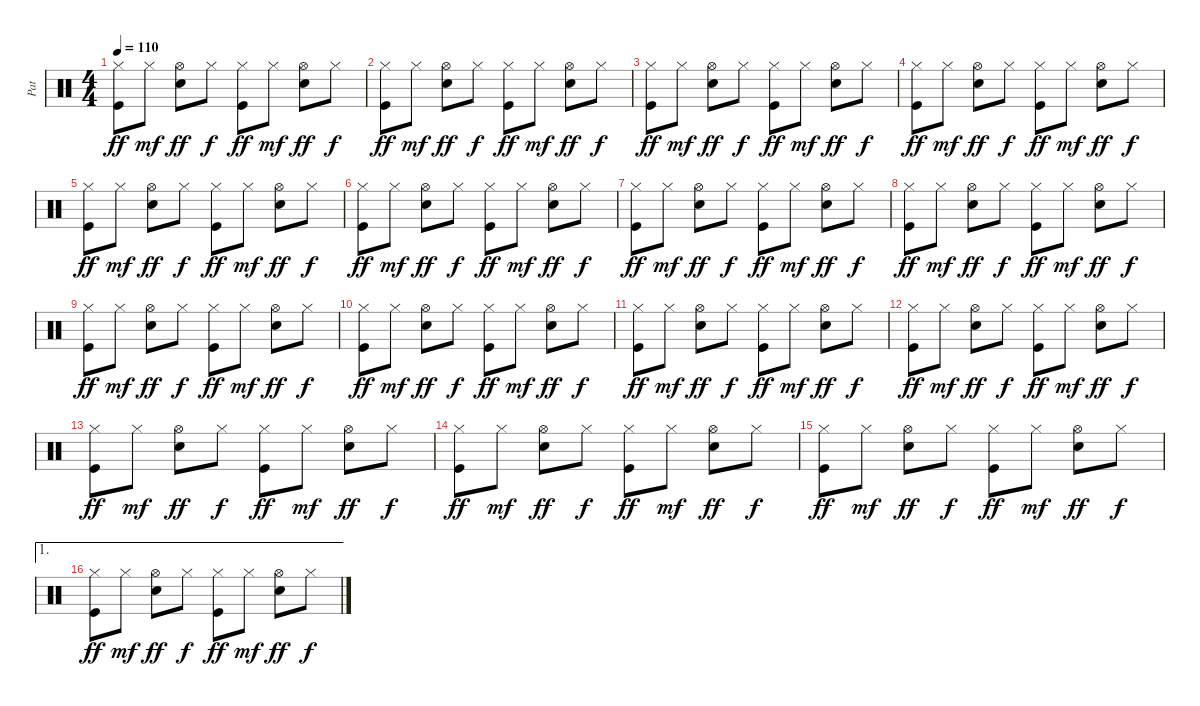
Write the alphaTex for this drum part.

\track ("Pat" "Pat") {instrument percussion}
\staff {score}
\articulation defaults
\ts (4 4)
\tempo 110
\clef neutral
\ks c
("Hi-Hat (closed)" "Kick (hit)").8{dy ff} "Hi-Hat (closed)".8{dy mf} ("Hi-Hat (open)" "Snare (hit) 2").8{dy ff} "Hi-Hat (closed)".8{dy f} ("Hi-Hat (closed)" "Kick (hit)").8{dy ff} "Hi-Hat (closed)".8{dy mf} ("Hi-Hat (open)" "Snare (hit) 2").8{dy ff} "Hi-Hat (closed)".8{dy f} |
("Hi-Hat (closed)" "Kick (hit)").8{dy ff} "Hi-Hat (closed)".8{dy mf} ("Hi-Hat (open)" "Snare (hit) 2").8{dy ff} "Hi-Hat (closed)".8{dy f} ("Hi-Hat (closed)" "Kick (hit)").8{dy ff} "Hi-Hat (closed)".8{dy mf} ("Hi-Hat (open)" "Snare (hit) 2").8{dy ff} "Hi-Hat (closed)".8{dy f} |
("Hi-Hat (closed)" "Kick (hit)").8{dy ff} "Hi-Hat (closed)".8{dy mf} ("Hi-Hat (open)" "Snare (hit) 2").8{dy ff} "Hi-Hat (closed)".8{dy f} ("Hi-Hat (closed)" "Kick (hit)").8{dy ff} "Hi-Hat (closed)".8{dy mf} ("Hi-Hat (open)" "Snare (hit) 2").8{dy ff} "Hi-Hat (closed)".8{dy f} |
("Hi-Hat (closed)" "Kick (hit)").8{dy ff} "Hi-Hat (closed)".8{dy mf} ("Hi-Hat (open)" "Snare (hit) 2").8{dy ff} "Hi-Hat (closed)".8{dy f} ("Hi-Hat (closed)" "Kick (hit)").8{dy ff} "Hi-Hat (closed)".8{dy mf} ("Hi-Hat (open)" "Snare (hit) 2").8{dy ff} "Hi-Hat (closed)".8{dy f} |
("Hi-Hat (closed)" "Kick (hit)").8{dy ff} "Hi-Hat (closed)".8{dy mf} ("Hi-Hat (open)" "Snare (hit) 2").8{dy ff} "Hi-Hat (closed)".8{dy f} ("Hi-Hat (closed)" "Kick (hit)").8{dy ff} "Hi-Hat (closed)".8{dy mf} ("Hi-Hat (open)" "Snare (hit) 2").8{dy ff} "Hi-Hat (closed)".8{dy f} |
("Hi-Hat (closed)" "Kick (hit)").8{dy ff} "Hi-Hat (closed)".8{dy mf} ("Hi-Hat (open)" "Snare (hit) 2").8{dy ff} "Hi-Hat (closed)".8{dy f} ("Hi-Hat (closed)" "Kick (hit)").8{dy ff} "Hi-Hat (closed)".8{dy mf} ("Hi-Hat (open)" "Snare (hit) 2").8{dy ff} "Hi-Hat (closed)".8{dy f} |
("Hi-Hat (closed)" "Kick (hit)").8{dy ff} "Hi-Hat (closed)".8{dy mf} ("Hi-Hat (open)" "Snare (hit) 2").8{dy ff} "Hi-Hat (closed)".8{dy f} ("Hi-Hat (closed)" "Kick (hit)").8{dy ff} "Hi-Hat (closed)".8{dy mf} ("Hi-Hat (open)" "Snare (hit) 2").8{dy ff} "Hi-Hat (closed)".8{dy f} |
("Hi-Hat (closed)" "Kick (hit)").8{dy ff} "Hi-Hat (closed)".8{dy mf} ("Hi-Hat (open)" "Snare (hit) 2").8{dy ff} "Hi-Hat (closed)".8{dy f} ("Hi-Hat (closed)" "Kick (hit)").8{dy ff} "Hi-Hat (closed)".8{dy mf} ("Hi-Hat (open)" "Snare (hit) 2").8{dy ff} "Hi-Hat (closed)".8{dy f} |
("Hi-Hat (closed)" "Kick (hit)").8{dy ff} "Hi-Hat (closed)".8{dy mf} ("Hi-Hat (open)" "Snare (hit) 2").8{dy ff} "Hi-Hat (closed)".8{dy f} ("Hi-Hat (closed)" "Kick (hit)").8{dy ff} "Hi-Hat (closed)".8{dy mf} ("Hi-Hat (open)" "Snare (hit) 2").8{dy ff} "Hi-Hat (closed)".8{dy f} |
("Hi-Hat (closed)" "Kick (hit)").8{dy ff} "Hi-Hat (closed)".8{dy mf} ("Hi-Hat (open)" "Snare (hit) 2").8{dy ff} "Hi-Hat (closed)".8{dy f} ("Hi-Hat (closed)" "Kick (hit)").8{dy ff} "Hi-Hat (closed)".8{dy mf} ("Hi-Hat (open)" "Snare (hit) 2").8{dy ff} "Hi-Hat (closed)".8{dy f} |
("Hi-Hat (closed)" "Kick (hit)").8{dy ff} "Hi-Hat (closed)".8{dy mf} ("Hi-Hat (open)" "Snare (hit) 2").8{dy ff} "Hi-Hat (closed)".8{dy f} ("Hi-Hat (closed)" "Kick (hit)").8{dy ff} "Hi-Hat (closed)".8{dy mf} ("Hi-Hat (open)" "Snare (hit) 2").8{dy ff} "Hi-Hat (closed)".8{dy f} |
("Hi-Hat (closed)" "Kick (hit)").8{dy ff} "Hi-Hat (closed)".8{dy mf} ("Hi-Hat (open)" "Snare (hit) 2").8{dy ff} "Hi-Hat (closed)".8{dy f} ("Hi-Hat (closed)" "Kick (hit)").8{dy ff} "Hi-Hat (closed)".8{dy mf} ("Hi-Hat (open)" "Snare (hit) 2").8{dy ff} "Hi-Hat (closed)".8{dy f} |
("Hi-Hat (closed)" "Kick (hit)").8{dy ff} "Hi-Hat (closed)".8{dy mf} ("Hi-Hat (open)" "Snare (hit) 2").8{dy ff} "Hi-Hat (closed)".8{dy f} ("Hi-Hat (closed)" "Kick (hit)").8{dy ff} "Hi-Hat (closed)".8{dy mf} ("Hi-Hat (open)" "Snare (hit) 2").8{dy ff} "Hi-Hat (closed)".8{dy f} |
("Hi-Hat (closed)" "Kick (hit)").8{dy ff} "Hi-Hat (closed)".8{dy mf} ("Hi-Hat (open)" "Snare (hit) 2").8{dy ff} "Hi-Hat (closed)".8{dy f} ("Hi-Hat (closed)" "Kick (hit)").8{dy ff} "Hi-Hat (closed)".8{dy mf} ("Hi-Hat (open)" "Snare (hit) 2").8{dy ff} "Hi-Hat (closed)".8{dy f} |
("Hi-Hat (closed)" "Kick (hit)").8{dy ff} "Hi-Hat (closed)".8{dy mf} ("Hi-Hat (open)" "Snare (hit) 2").8{dy ff} "Hi-Hat (closed)".8{dy f} ("Hi-Hat (closed)" "Kick (hit)").8{dy ff} "Hi-Hat (closed)".8{dy mf} ("Hi-Hat (open)" "Snare (hit) 2").8{dy ff} "Hi-Hat (closed)".8{dy f} |
\ae 1
("Hi-Hat (closed)" "Kick (hit)").8{dy ff} "Hi-Hat (closed)".8{dy mf} ("Hi-Hat (open)" "Snare (hit) 2").8{dy ff} "Hi-Hat (closed)".8{dy f} ("Hi-Hat (closed)" "Kick (hit)").8{dy ff} "Hi-Hat (closed)".8{dy mf} ("Hi-Hat (open)" "Snare (hit) 2").8{dy ff} "Hi-Hat (closed)".8{dy f}
